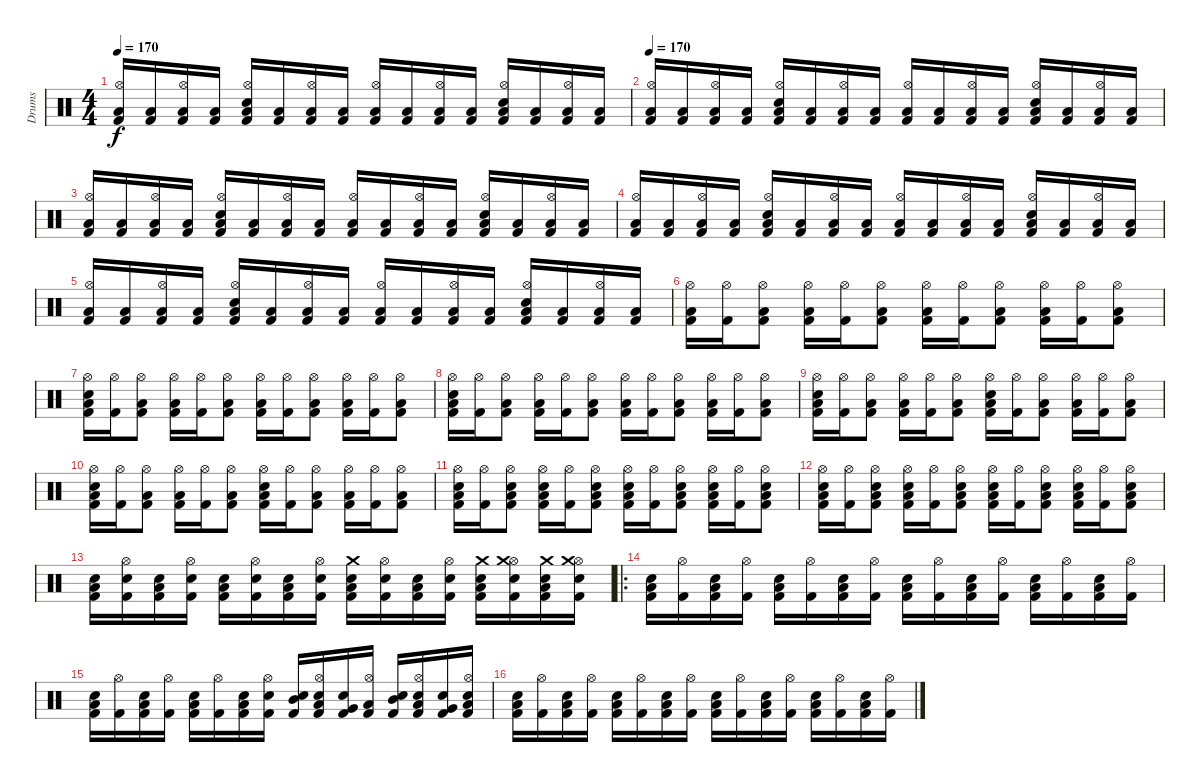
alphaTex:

\track ("Drums" "Drums") {instrument percussion}
\staff {score}
\articulation defaults
\ts (4 4)
\tempo 170
\clef neutral
\ks c
("Low Tom (hit)" "Hi-Hat (open)" "Kick (hit) 2").16{dy f} ("Low Tom (hit)" "Kick (hit) 2").16 ("Low Tom (hit)" "Hi-Hat (open)" "Kick (hit) 2").16 ("Low Tom (hit)" "Kick (hit) 2").16 ("Low Tom (hit)" "Hi-Hat (open)" "Snare (hit) 2" "Kick (hit) 2").16 ("Low Tom (hit)" "Kick (hit) 2").16 ("Low Tom (hit)" "Hi-Hat (open)" "Kick (hit) 2").16 ("Low Tom (hit)" "Kick (hit) 2").16 ("Low Tom (hit)" "Hi-Hat (open)" "Kick (hit) 2").16 ("Low Tom (hit)" "Kick (hit) 2").16 ("Low Tom (hit)" "Hi-Hat (open)" "Kick (hit) 2").16 ("Low Tom (hit)" "Kick (hit) 2").16 ("Low Tom (hit)" "Hi-Hat (open)" "Snare (hit) 2" "Kick (hit) 2").16 ("Low Tom (hit)" "Kick (hit) 2").16 ("Low Tom (hit)" "Hi-Hat (open)" "Kick (hit) 2").16 ("Low Tom (hit)" "Kick (hit) 2").16 |
\tempo 170
("Low Tom (hit)" "Hi-Hat (open)" "Kick (hit) 2").16 ("Low Tom (hit)" "Kick (hit) 2").16 ("Low Tom (hit)" "Hi-Hat (open)" "Kick (hit) 2").16 ("Low Tom (hit)" "Kick (hit) 2").16 ("Low Tom (hit)" "Hi-Hat (open)" "Snare (hit) 2" "Kick (hit) 2").16 ("Low Tom (hit)" "Kick (hit) 2").16 ("Low Tom (hit)" "Hi-Hat (open)" "Kick (hit) 2").16 ("Low Tom (hit)" "Kick (hit) 2").16 ("Low Tom (hit)" "Hi-Hat (open)" "Kick (hit) 2").16 ("Low Tom (hit)" "Kick (hit) 2").16 ("Low Tom (hit)" "Hi-Hat (open)" "Kick (hit) 2").16 ("Low Tom (hit)" "Kick (hit) 2").16 ("Low Tom (hit)" "Hi-Hat (open)" "Snare (hit) 2" "Kick (hit) 2").16 ("Low Tom (hit)" "Kick (hit) 2").16 ("Low Tom (hit)" "Hi-Hat (open)" "Kick (hit) 2").16 ("Low Tom (hit)" "Kick (hit) 2").16 |
("Low Tom (hit)" "Hi-Hat (open)" "Kick (hit) 2").16 ("Low Tom (hit)" "Kick (hit) 2").16 ("Low Tom (hit)" "Hi-Hat (open)" "Kick (hit) 2").16 ("Low Tom (hit)" "Kick (hit) 2").16 ("Low Tom (hit)" "Hi-Hat (open)" "Snare (hit) 2" "Kick (hit) 2").16 ("Low Tom (hit)" "Kick (hit) 2").16 ("Low Tom (hit)" "Hi-Hat (open)" "Kick (hit) 2").16 ("Low Tom (hit)" "Kick (hit) 2").16 ("Low Tom (hit)" "Hi-Hat (open)" "Kick (hit) 2").16 ("Low Tom (hit)" "Kick (hit) 2").16 ("Low Tom (hit)" "Hi-Hat (open)" "Kick (hit) 2").16 ("Low Tom (hit)" "Kick (hit) 2").16 ("Low Tom (hit)" "Hi-Hat (open)" "Snare (hit) 2" "Kick (hit) 2").16 ("Low Tom (hit)" "Kick (hit) 2").16 ("Low Tom (hit)" "Hi-Hat (open)" "Kick (hit) 2").16 ("Low Tom (hit)" "Kick (hit) 2").16 |
("Low Tom (hit)" "Hi-Hat (open)" "Kick (hit) 2").16 ("Low Tom (hit)" "Kick (hit) 2").16 ("Low Tom (hit)" "Hi-Hat (open)" "Kick (hit) 2").16 ("Low Tom (hit)" "Kick (hit) 2").16 ("Low Tom (hit)" "Hi-Hat (open)" "Snare (hit) 2" "Kick (hit) 2").16 ("Low Tom (hit)" "Kick (hit) 2").16 ("Low Tom (hit)" "Hi-Hat (open)" "Kick (hit) 2").16 ("Low Tom (hit)" "Kick (hit) 2").16 ("Low Tom (hit)" "Hi-Hat (open)" "Kick (hit) 2").16 ("Low Tom (hit)" "Kick (hit) 2").16 ("Low Tom (hit)" "Hi-Hat (open)" "Kick (hit) 2").16 ("Low Tom (hit)" "Kick (hit) 2").16 ("Low Tom (hit)" "Hi-Hat (open)" "Snare (hit) 2" "Kick (hit) 2").16 ("Low Tom (hit)" "Kick (hit) 2").16 ("Low Tom (hit)" "Hi-Hat (open)" "Kick (hit) 2").16 ("Low Tom (hit)" "Kick (hit) 2").16 |
("Low Tom (hit)" "Hi-Hat (open)" "Kick (hit) 2").16 ("Low Tom (hit)" "Kick (hit) 2").16 ("Low Tom (hit)" "Hi-Hat (open)" "Kick (hit) 2").16 ("Low Tom (hit)" "Kick (hit) 2").16 ("Low Tom (hit)" "Hi-Hat (open)" "Snare (hit) 2" "Kick (hit) 2").16 ("Low Tom (hit)" "Kick (hit) 2").16 ("Low Tom (hit)" "Hi-Hat (open)" "Kick (hit) 2").16 ("Low Tom (hit)" "Kick (hit) 2").16 ("Low Tom (hit)" "Hi-Hat (open)" "Kick (hit) 2").16 ("Low Tom (hit)" "Kick (hit) 2").16 ("Low Tom (hit)" "Hi-Hat (open)" "Kick (hit) 2").16 ("Low Tom (hit)" "Kick (hit) 2").16 ("Low Tom (hit)" "Hi-Hat (open)" "Snare (hit) 2" "Kick (hit) 2").16 ("Low Tom (hit)" "Kick (hit) 2").16 ("Low Tom (hit)" "Hi-Hat (open)" "Kick (hit) 2").16 ("Low Tom (hit)" "Kick (hit) 2").16 |
("Hi-Hat (open)" "Low Tom (hit)" "Kick (hit) 2").16 ("Hi-Hat (open)" "Kick (hit) 2").16 ("Hi-Hat (open)" "Low Tom (hit)" "Kick (hit) 2").8 ("Hi-Hat (open)" "Low Tom (hit)" "Kick (hit) 2").16 ("Hi-Hat (open)" "Kick (hit) 2").16 ("Hi-Hat (open)" "Low Tom (hit)" "Kick (hit) 2").8 ("Hi-Hat (open)" "Low Tom (hit)" "Kick (hit) 2").16 ("Hi-Hat (open)" "Kick (hit) 2").16 ("Hi-Hat (open)" "Low Tom (hit)" "Kick (hit) 2").8 ("Hi-Hat (open)" "Low Tom (hit)" "Kick (hit) 2").16 ("Hi-Hat (open)" "Kick (hit) 2").16 ("Hi-Hat (open)" "Low Tom (hit)" "Kick (hit) 2").8 |
("Hi-Hat (open)" "Low Tom (hit)" "Snare (hit) 2" "Kick (hit) 2").16 ("Hi-Hat (open)" "Kick (hit) 2").16 ("Hi-Hat (open)" "Low Tom (hit)" "Kick (hit) 2").8 ("Hi-Hat (open)" "Low Tom (hit)" "Kick (hit) 2").16 ("Hi-Hat (open)" "Kick (hit) 2").16 ("Hi-Hat (open)" "Low Tom (hit)" "Kick (hit) 2").8 ("Hi-Hat (open)" "Low Tom (hit)" "Kick (hit) 2").16 ("Hi-Hat (open)" "Kick (hit) 2").16 ("Hi-Hat (open)" "Low Tom (hit)" "Kick (hit) 2").8 ("Hi-Hat (open)" "Low Tom (hit)" "Kick (hit) 2").16 ("Hi-Hat (open)" "Kick (hit) 2").16 ("Hi-Hat (open)" "Low Tom (hit)" "Kick (hit) 2").8 |
("Hi-Hat (open)" "Low Tom (hit)" "Snare (hit) 2" "Kick (hit) 2").16 ("Hi-Hat (open)" "Kick (hit) 2").16 ("Hi-Hat (open)" "Low Tom (hit)" "Kick (hit) 2").8 ("Hi-Hat (open)" "Low Tom (hit)" "Kick (hit) 2").16 ("Hi-Hat (open)" "Kick (hit) 2").16 ("Hi-Hat (open)" "Low Tom (hit)" "Kick (hit) 2").8 ("Hi-Hat (open)" "Low Tom (hit)" "Kick (hit) 2").16 ("Hi-Hat (open)" "Kick (hit) 2").16 ("Hi-Hat (open)" "Low Tom (hit)" "Kick (hit) 2").8 ("Hi-Hat (open)" "Low Tom (hit)" "Kick (hit) 2").16 ("Hi-Hat (open)" "Kick (hit) 2").16 ("Hi-Hat (open)" "Low Tom (hit)" "Kick (hit) 2").8 |
("Hi-Hat (open)" "Low Tom (hit)" "Snare (hit) 2" "Kick (hit) 2").16 ("Hi-Hat (open)" "Kick (hit) 2").16 ("Hi-Hat (open)" "Low Tom (hit)" "Kick (hit) 2").8 ("Hi-Hat (open)" "Low Tom (hit)" "Kick (hit) 2").16 ("Hi-Hat (open)" "Kick (hit) 2").16 ("Hi-Hat (open)" "Low Tom (hit)" "Kick (hit) 2").8 ("Hi-Hat (open)" "Low Tom (hit)" "Snare (hit) 2" "Kick (hit) 2").16 ("Hi-Hat (open)" "Kick (hit) 2").16 ("Hi-Hat (open)" "Low Tom (hit)" "Kick (hit) 2").8 ("Hi-Hat (open)" "Low Tom (hit)" "Kick (hit) 2").16 ("Hi-Hat (open)" "Kick (hit) 2").16 ("Hi-Hat (open)" "Low Tom (hit)" "Kick (hit) 2").8 |
("Hi-Hat (open)" "Low Tom (hit)" "Snare (hit) 2" "Kick (hit) 2").16 ("Hi-Hat (open)" "Kick (hit) 2").16 ("Hi-Hat (open)" "Low Tom (hit)" "Kick (hit) 2").8 ("Hi-Hat (open)" "Low Tom (hit)" "Kick (hit) 2").16 ("Hi-Hat (open)" "Kick (hit) 2").16 ("Hi-Hat (open)" "Low Tom (hit)" "Kick (hit) 2").8 ("Hi-Hat (open)" "Low Tom (hit)" "Snare (hit) 2" "Kick (hit) 2").16 ("Hi-Hat (open)" "Kick (hit) 2").16 ("Hi-Hat (open)" "Low Tom (hit)" "Kick (hit) 2").8 ("Hi-Hat (open)" "Low Tom (hit)" "Kick (hit) 2").16 ("Hi-Hat (open)" "Kick (hit) 2").16 ("Hi-Hat (open)" "Low Tom (hit)" "Kick (hit) 2").8 |
("Hi-Hat (open)" "Low Tom (hit)" "Snare (hit) 2" "Kick (hit) 2").16 ("Hi-Hat (open)" "Kick (hit) 2").16 ("Hi-Hat (open)" "Low Tom (hit)" "Snare (hit) 2" "Kick (hit) 2").8 ("Hi-Hat (open)" "Low Tom (hit)" "Snare (hit) 2" "Kick (hit) 2").16 ("Hi-Hat (open)" "Kick (hit) 2").16 ("Hi-Hat (open)" "Low Tom (hit)" "Snare (hit) 2" "Kick (hit) 2").8 ("Hi-Hat (open)" "Low Tom (hit)" "Snare (hit) 2" "Kick (hit) 2").16 ("Hi-Hat (open)" "Kick (hit) 2").16 ("Hi-Hat (open)" "Low Tom (hit)" "Snare (hit) 2" "Kick (hit) 2").8 ("Hi-Hat (open)" "Low Tom (hit)" "Snare (hit) 2" "Kick (hit) 2").16 ("Hi-Hat (open)" "Kick (hit) 2").16 ("Hi-Hat (open)" "Low Tom (hit)" "Snare (hit) 2" "Kick (hit) 2").8 |
("Hi-Hat (open)" "Low Tom (hit)" "Snare (hit) 2" "Kick (hit) 2").16 ("Hi-Hat (open)" "Kick (hit) 2").16 ("Hi-Hat (open)" "Low Tom (hit)" "Snare (hit) 2" "Kick (hit) 2").8 ("Hi-Hat (open)" "Low Tom (hit)" "Snare (hit) 2" "Kick (hit) 2").16 ("Hi-Hat (open)" "Kick (hit) 2").16 ("Hi-Hat (open)" "Low Tom (hit)" "Snare (hit) 2" "Kick (hit) 2").8 ("Hi-Hat (open)" "Low Tom (hit)" "Snare (hit) 2" "Kick (hit) 2").16 ("Hi-Hat (open)" "Kick (hit) 2").16 ("Hi-Hat (open)" "Low Tom (hit)" "Snare (hit) 2" "Kick (hit) 2").8 ("Hi-Hat (open)" "Low Tom (hit)" "Snare (hit) 2" "Kick (hit) 2").16 ("Hi-Hat (open)" "Kick (hit) 2").16 ("Hi-Hat (open)" "Low Tom (hit)" "Snare (hit) 2" "Kick (hit) 2").8 |
("Low Tom (hit)" "Snare (hit) 2" "Kick (hit) 2").16 ("Hi-Hat (open)" "Snare (hit) 2" "Kick (hit) 2").16 ("Low Tom (hit)" "Snare (hit) 2" "Kick (hit) 2").16 ("Hi-Hat (open)" "Snare (hit) 2" "Kick (hit) 2").16 ("Low Tom (hit)" "Snare (hit) 2" "Kick (hit) 2").16 ("Hi-Hat (open)" "Snare (hit) 2" "Kick (hit) 2").16 ("Low Tom (hit)" "Snare (hit) 2" "Kick (hit) 2").16 ("Hi-Hat (open)" "Snare (hit) 2" "Kick (hit) 2").16 ("Low Tom (hit)" "Crash medium (hit)" "Snare (hit) 2" "Kick (hit) 2").16 ("Hi-Hat (open)" "Snare (hit) 2" "Kick (hit) 2").16 ("Low Tom (hit)" "Snare (hit) 2" "Kick (hit) 2").16 ("Hi-Hat (open)" "Snare (hit) 2" "Kick (hit) 2").16 ("Low Tom (hit)" "Crash medium (hit)" "Snare (hit) 2" "Kick (hit) 2").16 ("Hi-Hat (open)" "Crash medium (hit)" "Snare (hit) 2" "Kick (hit) 2").16 ("Low Tom (hit)" "Crash medium (hit)" "Snare (hit) 2" "Kick (hit) 2").16 ("Hi-Hat (open)" "Crash medium (hit)" "Snare (hit) 2" "Kick (hit) 2").16 |
\ro
("Low Tom (hit)" "Snare (hit) 2" "Kick (hit) 2").16 ("Hi-Hat (open)" "Kick (hit) 2").16 ("Low Tom (hit)" "Snare (hit) 2" "Kick (hit) 2").16 ("Hi-Hat (open)" "Kick (hit) 2").16 ("Low Tom (hit)" "Snare (hit) 2" "Kick (hit) 2").16 ("Hi-Hat (open)" "Kick (hit) 2").16 ("Low Tom (hit)" "Snare (hit) 2" "Kick (hit) 2").16 ("Hi-Hat (open)" "Kick (hit) 2").16 ("Low Tom (hit)" "Snare (hit) 2" "Kick (hit) 2").16 ("Hi-Hat (open)" "Kick (hit) 2").16 ("Low Tom (hit)" "Snare (hit) 2" "Kick (hit) 2").16 ("Hi-Hat (open)" "Kick (hit) 2").16 ("Low Tom (hit)" "Snare (hit) 2" "Kick (hit) 2").16 ("Hi-Hat (open)" "Kick (hit) 2").16 ("Low Tom (hit)" "Snare (hit) 2" "Kick (hit) 2").16 ("Hi-Hat (open)" "Kick (hit) 2").16 |
("Low Tom (hit)" "Snare (hit) 2" "Kick (hit) 2").16 ("Hi-Hat (open)" "Kick (hit) 2").16 ("Low Tom (hit)" "Snare (hit) 2" "Kick (hit) 2").16 ("Hi-Hat (open)" "Kick (hit) 2").16 ("Low Tom (hit)" "Snare (hit) 2" "Kick (hit) 2").16 ("Hi-Hat (open)" "Kick (hit) 2").16 ("Low Tom (hit)" "Snare (hit) 2" "Kick (hit) 2").16 ("Hi-Hat (open)" "Snare (hit) 2" "Kick (hit) 2").16 ("Mid Tom (hit)" "Snare (hit) 2" "Kick (hit) 2").16 ("Low Tom (hit)" "Hi-Hat (open)" "Snare (hit) 2" "Kick (hit) 2").16 ("Very Low Tom (hit)" "Snare (hit) 2" "Kick (hit) 2").16 ("Low Tom (hit)" "Hi-Hat (open)" "Kick (hit) 2").16 ("Mid Tom (hit)" "Snare (hit) 2" "Kick (hit) 2").16 ("Low Tom (hit)" "Hi-Hat (open)" "Snare (hit) 2" "Kick (hit) 2").16 ("Very Low Tom (hit)" "Snare (hit) 2" "Kick (hit) 2").16 ("Low Tom (hit)" "Hi-Hat (open)" "Snare (hit) 2" "Kick (hit) 2").16 |
("Low Tom (hit)" "Snare (hit) 2" "Kick (hit) 2").16 ("Hi-Hat (open)" "Kick (hit) 2").16 ("Low Tom (hit)" "Snare (hit) 2" "Kick (hit) 2").16 ("Hi-Hat (open)" "Kick (hit) 2").16 ("Low Tom (hit)" "Snare (hit) 2" "Kick (hit) 2").16 ("Hi-Hat (open)" "Kick (hit) 2").16 ("Low Tom (hit)" "Snare (hit) 2" "Kick (hit) 2").16 ("Hi-Hat (open)" "Kick (hit) 2").16 ("Low Tom (hit)" "Snare (hit) 2" "Kick (hit) 2").16 ("Hi-Hat (open)" "Kick (hit) 2").16 ("Low Tom (hit)" "Snare (hit) 2" "Kick (hit) 2").16 ("Hi-Hat (open)" "Kick (hit) 2").16 ("Low Tom (hit)" "Snare (hit) 2" "Kick (hit) 2").16 ("Hi-Hat (open)" "Kick (hit) 2").16 ("Low Tom (hit)" "Snare (hit) 2" "Kick (hit) 2").16 ("Hi-Hat (open)" "Kick (hit) 2").16
